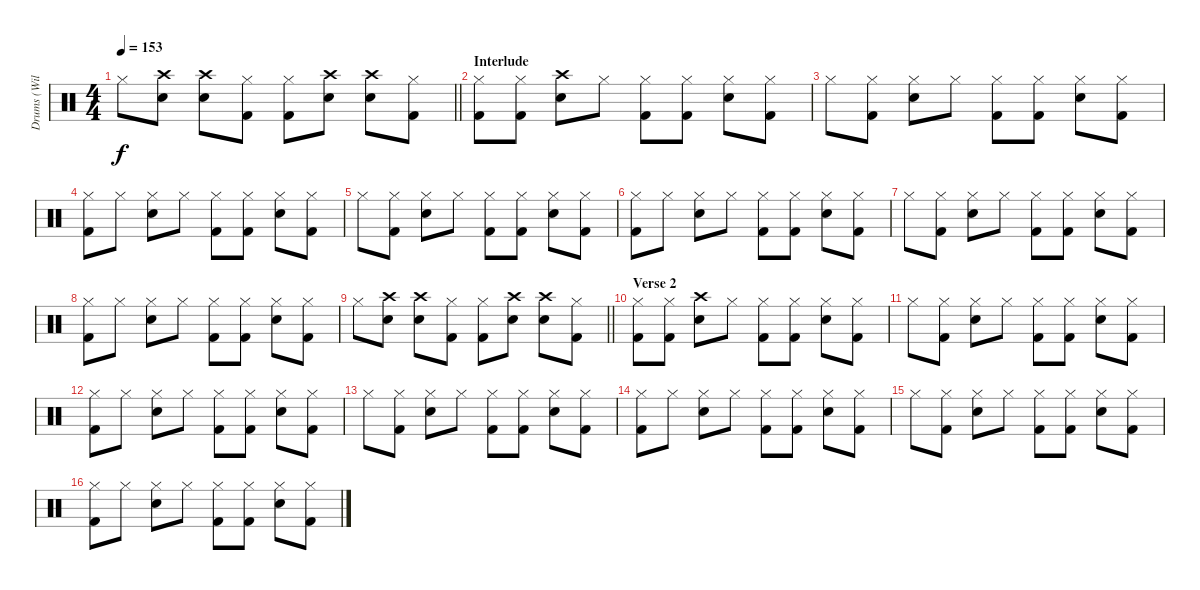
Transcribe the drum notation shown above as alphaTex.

\track ("Drums (Williams)" "Drums (Wil") {instrument percussion}
\staff {score}
\articulation defaults
\ts (4 4)
\tempo 153
\clef neutral
\barLineRight lightlight
\ks c "Hi-Hat (closed)".8{dy f}
("Crash high (hit)" "Electric Snare (hit)").8 ("Crash high (hit)" "Electric Snare (hit)").8 ("Hi-Hat (closed)" "Kick (hit) 2").8 ("Hi-Hat (closed)" "Kick (hit) 2").8 ("Crash high (hit)" "Electric Snare (hit)").8 ("Crash high (hit)" "Electric Snare (hit)").8 ("Hi-Hat (closed)" "Kick (hit) 2").8 |
\section ("" "Interlude")
("Hi-Hat (closed)" "Kick (hit) 2").8 ("Hi-Hat (closed)" "Kick (hit) 2").8 ("Crash high (hit)" "Electric Snare (hit)").8 "Hi-Hat (closed)".8 ("Hi-Hat (closed)" "Kick (hit) 2").8 ("Hi-Hat (closed)" "Kick (hit) 2").8 ("Hi-Hat (closed)" "Electric Snare (hit)").8 ("Hi-Hat (closed)" "Kick (hit) 2").8 |
"Hi-Hat (closed)".8 ("Hi-Hat (closed)" "Kick (hit) 2").8 ("Hi-Hat (closed)" "Electric Snare (hit)").8 "Hi-Hat (closed)".8 ("Hi-Hat (closed)" "Kick (hit) 2").8 ("Hi-Hat (closed)" "Kick (hit) 2").8 ("Hi-Hat (closed)" "Electric Snare (hit)").8 ("Hi-Hat (closed)" "Kick (hit) 2").8 |
("Hi-Hat (closed)" "Kick (hit) 2").8 "Hi-Hat (closed)".8 ("Hi-Hat (closed)" "Electric Snare (hit)").8 "Hi-Hat (closed)".8 ("Hi-Hat (closed)" "Kick (hit) 2").8 ("Hi-Hat (closed)" "Kick (hit) 2").8 ("Hi-Hat (closed)" "Electric Snare (hit)").8 ("Hi-Hat (closed)" "Kick (hit) 2").8 |
"Hi-Hat (closed)".8 ("Hi-Hat (closed)" "Kick (hit) 2").8 ("Hi-Hat (closed)" "Electric Snare (hit)").8 "Hi-Hat (closed)".8 ("Hi-Hat (closed)" "Kick (hit) 2").8 ("Hi-Hat (closed)" "Kick (hit) 2").8 ("Hi-Hat (closed)" "Electric Snare (hit)").8 ("Hi-Hat (closed)" "Kick (hit) 2").8 |
("Hi-Hat (closed)" "Kick (hit) 2").8 "Hi-Hat (closed)".8 ("Hi-Hat (closed)" "Electric Snare (hit)").8 "Hi-Hat (closed)".8 ("Hi-Hat (closed)" "Kick (hit) 2").8 ("Hi-Hat (closed)" "Kick (hit) 2").8 ("Hi-Hat (closed)" "Electric Snare (hit)").8 ("Hi-Hat (closed)" "Kick (hit) 2").8 |
"Hi-Hat (closed)".8 ("Hi-Hat (closed)" "Kick (hit) 2").8 ("Hi-Hat (closed)" "Electric Snare (hit)").8 "Hi-Hat (closed)".8 ("Hi-Hat (closed)" "Kick (hit) 2").8 ("Hi-Hat (closed)" "Kick (hit) 2").8 ("Hi-Hat (closed)" "Electric Snare (hit)").8 ("Hi-Hat (closed)" "Kick (hit) 2").8 |
("Hi-Hat (closed)" "Kick (hit) 2").8 "Hi-Hat (closed)".8 ("Hi-Hat (closed)" "Electric Snare (hit)").8 "Hi-Hat (closed)".8 ("Hi-Hat (closed)" "Kick (hit) 2").8 ("Hi-Hat (closed)" "Kick (hit) 2").8 ("Hi-Hat (closed)" "Electric Snare (hit)").8 ("Hi-Hat (closed)" "Kick (hit) 2").8 |
\barLineRight lightlight "Hi-Hat (closed)".8
("Crash high (hit)" "Electric Snare (hit)").8 ("Crash high (hit)" "Electric Snare (hit)").8 ("Hi-Hat (closed)" "Kick (hit) 2").8 ("Hi-Hat (closed)" "Kick (hit) 2").8 ("Crash high (hit)" "Electric Snare (hit)").8 ("Crash high (hit)" "Electric Snare (hit)").8 ("Hi-Hat (closed)" "Kick (hit) 2").8 |
\section ("" "Verse 2")
("Hi-Hat (closed)" "Kick (hit) 2").8 ("Hi-Hat (closed)" "Kick (hit) 2").8 ("Crash high (hit)" "Electric Snare (hit)").8 "Hi-Hat (closed)".8 ("Hi-Hat (closed)" "Kick (hit) 2").8 ("Hi-Hat (closed)" "Kick (hit) 2").8 ("Hi-Hat (closed)" "Electric Snare (hit)").8 ("Hi-Hat (closed)" "Kick (hit) 2").8 |
"Hi-Hat (closed)".8 ("Hi-Hat (closed)" "Kick (hit) 2").8 ("Hi-Hat (closed)" "Electric Snare (hit)").8 "Hi-Hat (closed)".8 ("Hi-Hat (closed)" "Kick (hit) 2").8 ("Hi-Hat (closed)" "Kick (hit) 2").8 ("Hi-Hat (closed)" "Electric Snare (hit)").8 ("Hi-Hat (closed)" "Kick (hit) 2").8 |
("Hi-Hat (closed)" "Kick (hit) 2").8 "Hi-Hat (closed)".8 ("Hi-Hat (closed)" "Electric Snare (hit)").8 "Hi-Hat (closed)".8 ("Hi-Hat (closed)" "Kick (hit) 2").8 ("Hi-Hat (closed)" "Kick (hit) 2").8 ("Hi-Hat (closed)" "Electric Snare (hit)").8 ("Hi-Hat (closed)" "Kick (hit) 2").8 |
"Hi-Hat (closed)".8 ("Hi-Hat (closed)" "Kick (hit) 2").8 ("Hi-Hat (closed)" "Electric Snare (hit)").8 "Hi-Hat (closed)".8 ("Hi-Hat (closed)" "Kick (hit) 2").8 ("Hi-Hat (closed)" "Kick (hit) 2").8 ("Hi-Hat (closed)" "Electric Snare (hit)").8 ("Hi-Hat (closed)" "Kick (hit) 2").8 |
("Hi-Hat (closed)" "Kick (hit) 2").8 "Hi-Hat (closed)".8 ("Hi-Hat (closed)" "Electric Snare (hit)").8 "Hi-Hat (closed)".8 ("Hi-Hat (closed)" "Kick (hit) 2").8 ("Hi-Hat (closed)" "Kick (hit) 2").8 ("Hi-Hat (closed)" "Electric Snare (hit)").8 ("Hi-Hat (closed)" "Kick (hit) 2").8 |
"Hi-Hat (closed)".8 ("Hi-Hat (closed)" "Kick (hit) 2").8 ("Hi-Hat (closed)" "Electric Snare (hit)").8 "Hi-Hat (closed)".8 ("Hi-Hat (closed)" "Kick (hit) 2").8 ("Hi-Hat (closed)" "Kick (hit) 2").8 ("Hi-Hat (closed)" "Electric Snare (hit)").8 ("Hi-Hat (closed)" "Kick (hit) 2").8 |
("Hi-Hat (closed)" "Kick (hit) 2").8 "Hi-Hat (closed)".8 ("Hi-Hat (closed)" "Electric Snare (hit)").8 "Hi-Hat (closed)".8 ("Hi-Hat (closed)" "Kick (hit) 2").8 ("Hi-Hat (closed)" "Kick (hit) 2").8 ("Hi-Hat (closed)" "Electric Snare (hit)").8 ("Hi-Hat (closed)" "Kick (hit) 2").8
